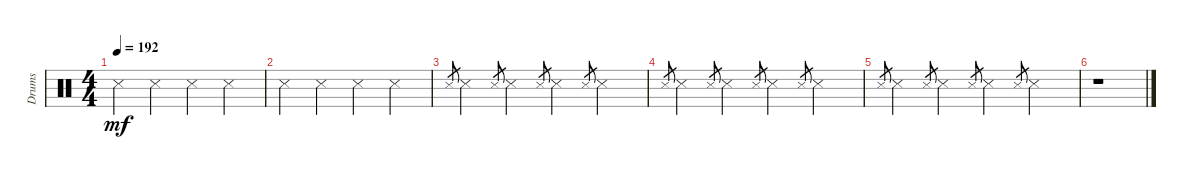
\track ("Drums" "Drums") {instrument percussion}
\staff {score}
\articulation defaults
\ts (4 4)
\tempo 192
\clef neutral
\ks c "Snare (side stick) 3".4{dy mf} "Snare (side stick) 3".4 "Snare (side stick) 3".4 "Snare (side stick) 3".4
|
"Snare (side stick) 3".4 "Snare (side stick) 3".4 "Snare (side stick) 3".4 "Snare (side stick) 3".4 |
"Snare (side stick) 3".8{gr} "Snare (side stick) 3".4 "Snare (side stick) 3".8{gr} "Snare (side stick) 3".4 "Snare (side stick) 3".8{gr} "Snare (side stick) 3".4 "Snare (side stick) 3".8{gr} "Snare (side stick) 3".4 |
"Snare (side stick) 3".8{gr} "Snare (side stick) 3".4 "Snare (side stick) 3".8{gr} "Snare (side stick) 3".4 "Snare (side stick) 3".8{gr} "Snare (side stick) 3".4 "Snare (side stick) 3".8{gr} "Snare (side stick) 3".4 |
"Snare (side stick) 3".8{gr} "Snare (side stick) 3".4 "Snare (side stick) 3".8{gr} "Snare (side stick) 3".4 "Snare (side stick) 3".8{gr} "Snare (side stick) 3".4 "Snare (side stick) 3".8{gr} "Snare (side stick) 3".4 |
r.1
